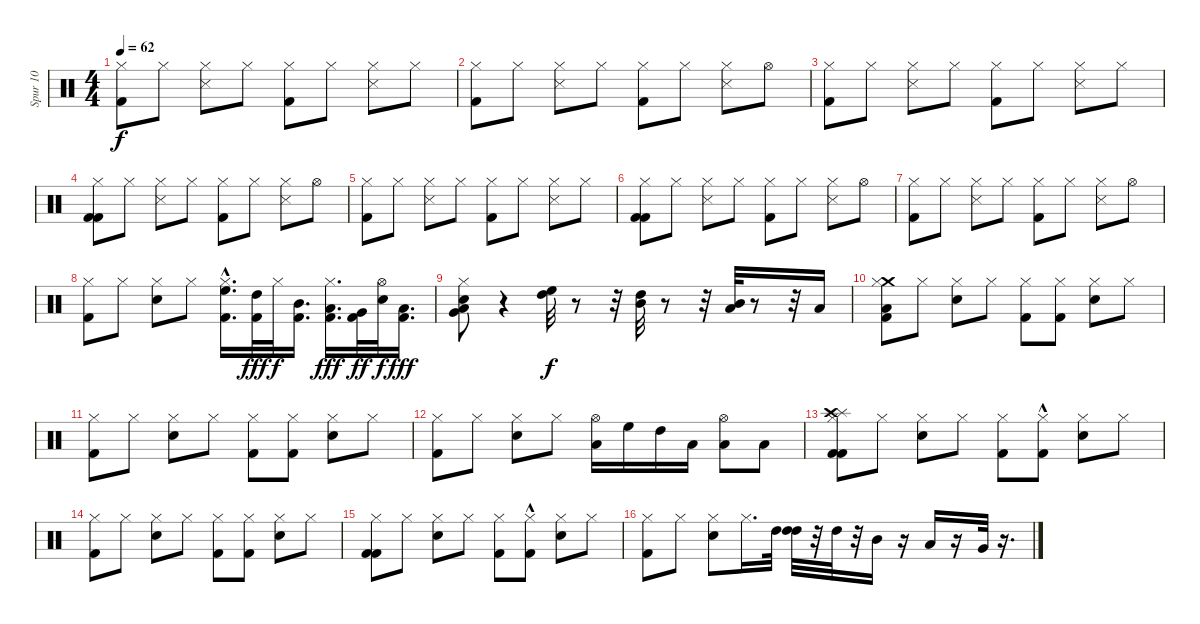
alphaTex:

\track ("Spur 10" "Spur 10") {instrument percussion}
\staff {score}
\articulation defaults
\ts (4 4)
\tempo 62
\clef neutral
\ks c
("Kick (hit) 2" "Hi-Hat (closed)").8{dy f} "Hi-Hat (closed)".8 ("Snare (side stick) 3" "Hi-Hat (closed)").8 "Hi-Hat (closed)".8 ("Kick (hit) 2" "Hi-Hat (closed)").8 "Hi-Hat (closed)".8 ("Snare (side stick) 3" "Hi-Hat (closed)").8 "Hi-Hat (closed)".8 |
("Kick (hit) 2" "Hi-Hat (closed)").8 "Hi-Hat (closed)".8 ("Snare (side stick) 3" "Hi-Hat (closed)").8 "Hi-Hat (closed)".8 ("Kick (hit) 2" "Hi-Hat (closed)").8 "Hi-Hat (closed)".8 ("Snare (side stick) 3" "Hi-Hat (closed)").8 "Hi-Hat (open)".8 |
("Kick (hit) 2" "Hi-Hat (closed)").8 "Hi-Hat (closed)".8 ("Snare (side stick) 3" "Hi-Hat (closed)").8 "Hi-Hat (closed)".8 ("Kick (hit) 2" "Hi-Hat (closed)").8 "Hi-Hat (closed)".8 ("Snare (side stick) 3" "Hi-Hat (closed)").8 "Hi-Hat (closed)".8 |
("Kick (hit) 2" "Hi-Hat (closed)" "Kick (hit) 2").8 "Hi-Hat (closed)".8 ("Snare (side stick) 3" "Hi-Hat (closed)").8 "Hi-Hat (closed)".8 ("Kick (hit) 2" "Hi-Hat (closed)").8 "Hi-Hat (closed)".8 ("Snare (side stick) 3" "Hi-Hat (closed)").8 "Hi-Hat (open)".8 |
("Kick (hit) 2" "Hi-Hat (closed)").8 "Hi-Hat (closed)".8 ("Snare (side stick) 3" "Hi-Hat (closed)").8 "Hi-Hat (closed)".8 ("Kick (hit) 2" "Hi-Hat (closed)").8 "Hi-Hat (closed)".8 ("Snare (side stick) 3" "Hi-Hat (closed)").8 "Hi-Hat (closed)".8 |
("Kick (hit) 2" "Hi-Hat (closed)" "Kick (hit) 2").8 "Hi-Hat (closed)".8 ("Snare (side stick) 3" "Hi-Hat (closed)").8 "Hi-Hat (closed)".8 ("Kick (hit) 2" "Hi-Hat (closed)").8 "Hi-Hat (closed)".8 ("Snare (side stick) 3" "Hi-Hat (closed)").8 "Hi-Hat (open)".8 |
("Kick (hit) 2" "Hi-Hat (closed)").8 "Hi-Hat (closed)".8 ("Snare (side stick) 3" "Hi-Hat (closed)").8 "Hi-Hat (closed)".8 ("Kick (hit) 2" "Hi-Hat (closed)").8 "Hi-Hat (closed)".8 ("Snare (side stick) 3" "Hi-Hat (closed)").8 "Hi-Hat (open)".8 |
("Kick (hit) 2" "Hi-Hat (closed)").8 "Hi-Hat (closed)".8 ("Snare (hit) 2" "Hi-Hat (closed)").8 "Hi-Hat (closed)".8 ("High Floor Tom (hit)" "Hi-Hat (closed)" "Kick (hit) 2"{hac}).16{d} ("High Tom (hit)" "Kick (hit) 2").32{dy fff} "Hi-Hat (closed)".32{dy f} ("Mid Tom (hit)" "Kick (hit) 2").16{d} ("Hi-Hat (closed)" "Low Tom (hit)" "Kick (hit) 2").16{d dy fff} ("Very Low Tom (hit)" "Kick (hit) 2").32{dy ff} ("Snare (hit) 2" "Hi-Hat (open)").32{dy f} ("Low Floor Tom (hit)" "Kick (hit) 2").16{d dy fff} |
("Snare (hit) 2" "Hi-Hat (closed)" "Low Tom (hit)" "Very Low Tom (hit)").8 r.4 ("High Floor Tom (hit)" "High Tom (hit)").32{dy f} r.8 r.32 ("High Tom (hit)" "Mid Tom (hit)").32 r.8 r.32 ("Mid Tom (hit)" "Low Tom (hit)").32 r.8 r.32 "Low Floor Tom (hit)".16 |
("Low Floor Tom (hit)" "Crash medium (hit)" "Kick (hit) 2" "Hi-Hat (closed)").8 "Hi-Hat (closed)".8 ("Snare (hit) 2" "Hi-Hat (closed)").8 "Hi-Hat (closed)".8 ("Kick (hit) 2" "Hi-Hat (closed)").8 ("Kick (hit) 2" "Hi-Hat (closed)").8 ("Snare (hit) 2" "Hi-Hat (closed)").8 "Hi-Hat (closed)".8 |
("Kick (hit) 2" "Hi-Hat (closed)").8 "Hi-Hat (closed)".8 ("Snare (hit) 2" "Hi-Hat (closed)").8 "Hi-Hat (closed)".8 ("Kick (hit) 2" "Hi-Hat (closed)").8 ("Kick (hit) 2" "Hi-Hat (closed)").8 ("Snare (hit) 2" "Hi-Hat (closed)").8 "Hi-Hat (closed)".8 |
("Kick (hit) 2" "Hi-Hat (closed)").8 "Hi-Hat (closed)".8 ("Snare (hit) 2" "Hi-Hat (closed)").8 "Hi-Hat (closed)".8 ("Hi-Hat (open)" "Low Tom (hit)").16 "High Floor Tom (hit)".16 "High Tom (hit)".16 "Low Tom (hit)".16 ("Hi-Hat (open)" "Low Floor Tom (hit)").8 "Low Floor Tom (hit)".8 |
("Kick (hit) 2" "Hi-Hat (closed)" "Splash (hit)" "Crash high (hit)" "Kick (hit) 2").8 "Hi-Hat (closed)".8 ("Snare (hit) 2" "Hi-Hat (closed)").8 "Hi-Hat (closed)".8 ("Kick (hit) 2" "Hi-Hat (closed)").8 ("Kick (hit) 2"{hac} "Hi-Hat (closed)").8 ("Snare (hit) 2" "Hi-Hat (closed)").8 "Hi-Hat (closed)".8 |
("Kick (hit) 2" "Hi-Hat (closed)").8 "Hi-Hat (closed)".8 ("Snare (hit) 2" "Hi-Hat (closed)").8 "Hi-Hat (closed)".8 ("Kick (hit) 2" "Hi-Hat (closed)").8 ("Kick (hit) 2" "Hi-Hat (closed)").8 ("Snare (hit) 2" "Hi-Hat (closed)").8 "Hi-Hat (closed)".8 |
("Kick (hit) 2" "Hi-Hat (closed)" "Kick (hit) 2").8 "Hi-Hat (closed)".8 ("Snare (hit) 2" "Hi-Hat (closed)").8 "Hi-Hat (closed)".8 ("Kick (hit) 2" "Hi-Hat (closed)").8 ("Kick (hit) 2"{hac} "Hi-Hat (closed)").8 ("Snare (hit) 2" "Hi-Hat (closed)").8 "Hi-Hat (closed)".8 |
("Kick (hit) 2" "Hi-Hat (closed)").8 "Hi-Hat (closed)".8 ("Snare (hit) 2" "Hi-Hat (closed)").8 "Hi-Hat (closed)".16{d} "High Tom (hit)".32 ("High Tom (hit)" "High Tom (hit)").32 r.32 "High Tom (hit)".32 r.32 "Mid Tom (hit)".16 r.16 "Low Tom (hit)".16 r.16 "Very Low Tom (hit)".32 r.16{d}
